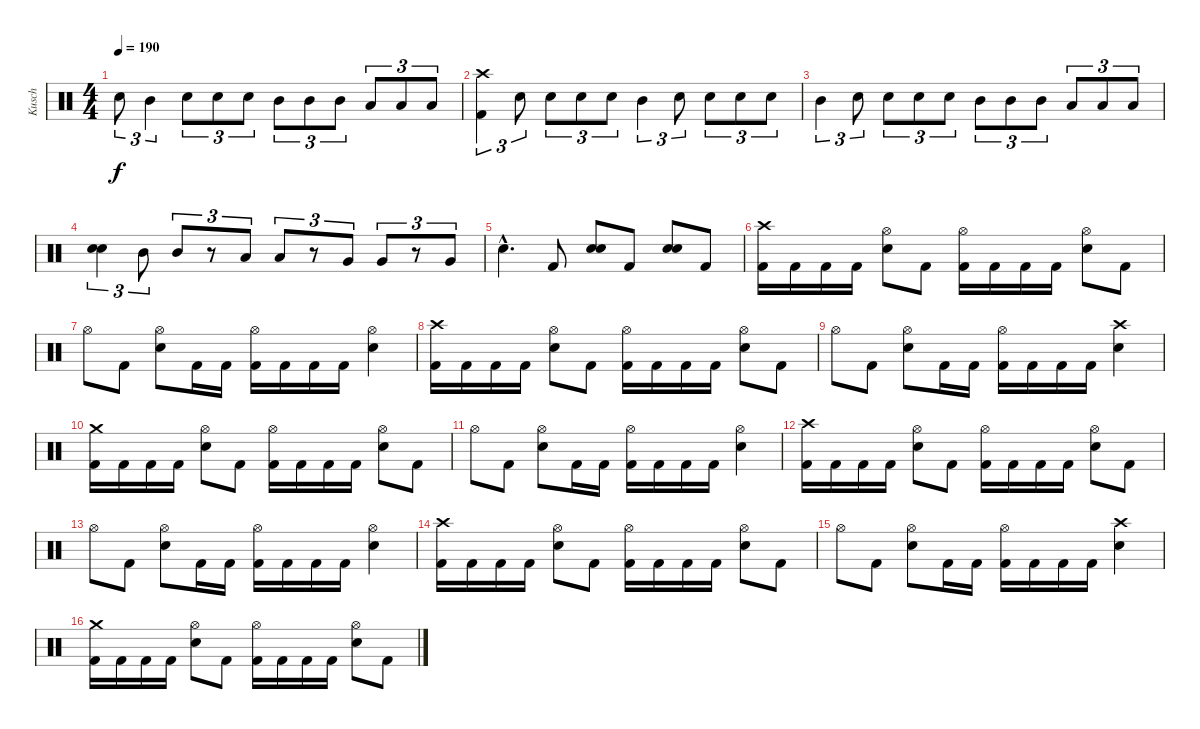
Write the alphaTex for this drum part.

\track ("Kusch" "Kusch") {instrument percussion}
\staff {score}
\articulation defaults
\ts (4 4)
\tempo 190
\clef neutral
\ks c "Electric Snare (hit)".8{tu (3 2) dy f} "Mid Tom (hit)".4{tu (3 2)} "Electric Snare (hit)".8{tu (3 2)} "Electric Snare (hit)".8{tu (3 2)} "Electric Snare (hit)".8{tu (3 2)} "Mid Tom (hit)".8{tu (3 2)} "Mid Tom (hit)".8{tu (3 2)} "Mid Tom (hit)".8{tu (3 2)} "Low Tom (hit)".8{tu (3 2)} "Low Tom (hit)".8{tu (3 2)} "Low Tom (hit)".8{tu (3 2)}
|
("Crash high (hit)" "Kick (hit) 2").4{tu (3 2)} "Electric Snare (hit)".8{tu (3 2)} "Electric Snare (hit)".8{tu (3 2)} "Electric Snare (hit)".8{tu (3 2)} "Electric Snare (hit)".8{tu (3 2)} "Mid Tom (hit)".4{tu (3 2)} "Electric Snare (hit)".8{tu (3 2)} "Electric Snare (hit)".8{tu (3 2)} "Electric Snare (hit)".8{tu (3 2)} "Electric Snare (hit)".8{tu (3 2)} |
"Mid Tom (hit)".4{tu (3 2)} "Electric Snare (hit)".8{tu (3 2)} "Electric Snare (hit)".8{tu (3 2)} "Electric Snare (hit)".8{tu (3 2)} "Electric Snare (hit)".8{tu (3 2)} "Mid Tom (hit)".8{tu (3 2)} "Mid Tom (hit)".8{tu (3 2)} "Mid Tom (hit)".8{tu (3 2)} "Low Tom (hit)".8{tu (3 2)} "Low Tom (hit)".8{tu (3 2)} "Low Tom (hit)".8{tu (3 2)} |
("Electric Snare (hit)" "Electric Snare (hit)").4{tu (3 2) bd 240} "Mid Tom (hit)".8{tu (3 2)} "Mid Tom (hit)".8{tu (3 2)} r.8{tu (3 2)} "Low Tom (hit)".8{tu (3 2)} "Low Tom (hit)".8{tu (3 2)} r.8{tu (3 2)} "Very Low Tom (hit)".8{tu (3 2)} "Very Low Tom (hit)".8{tu (3 2)} r.8{tu (3 2)} "Very Low Tom (hit)".8{tu (3 2)} |
"Electric Snare (hit)"{hac}.4{d} "Kick (hit) 2".8 ("Electric Snare (hit)" "Electric Snare (hit)").8{bd 240} "Kick (hit) 2".8 ("Electric Snare (hit)" "Electric Snare (hit)").8{bd 240} "Kick (hit) 2".8 |
("Crash high (hit)" "Kick (hit) 2").16 "Kick (hit) 2".16 "Kick (hit) 2".16 "Kick (hit) 2".16 ("Hi-Hat (open)" "Electric Snare (hit)").8 "Kick (hit) 2".8 ("Hi-Hat (open)" "Kick (hit) 2").16 "Kick (hit) 2".16 "Kick (hit) 2".16 "Kick (hit) 2".16 ("Hi-Hat (open)" "Electric Snare (hit)").8 "Kick (hit) 2".8 |
"Hi-Hat (open)".8 "Kick (hit) 2".8 ("Hi-Hat (open)" "Electric Snare (hit)").8 "Kick (hit) 2".16 "Kick (hit) 2".16 ("Hi-Hat (open)" "Kick (hit) 2").16 "Kick (hit) 2".16 "Kick (hit) 2".16 "Kick (hit) 2".16 ("Hi-Hat (open)" "Electric Snare (hit)").4 |
("Crash high (hit)" "Kick (hit) 2").16 "Kick (hit) 2".16 "Kick (hit) 2".16 "Kick (hit) 2".16 ("Hi-Hat (open)" "Electric Snare (hit)").8 "Kick (hit) 2".8 ("Hi-Hat (open)" "Kick (hit) 2").16 "Kick (hit) 2".16 "Kick (hit) 2".16 "Kick (hit) 2".16 ("Hi-Hat (open)" "Electric Snare (hit)").8 "Kick (hit) 2".8 |
"Hi-Hat (open)".8 "Kick (hit) 2".8 ("Hi-Hat (open)" "Electric Snare (hit)").8 "Kick (hit) 2".16 "Kick (hit) 2".16 ("Hi-Hat (open)" "Kick (hit) 2").16 "Kick (hit) 2".16 "Kick (hit) 2".16 "Kick (hit) 2".16 ("Crash high (hit)" "Electric Snare (hit)").4 |
("Crash medium (hit)" "Kick (hit) 2").16 "Kick (hit) 2".16 "Kick (hit) 2".16 "Kick (hit) 2".16 ("Hi-Hat (open)" "Electric Snare (hit)").8 "Kick (hit) 2".8 ("Hi-Hat (open)" "Kick (hit) 2").16 "Kick (hit) 2".16 "Kick (hit) 2".16 "Kick (hit) 2".16 ("Hi-Hat (open)" "Electric Snare (hit)").8 "Kick (hit) 2".8 |
"Hi-Hat (open)".8 "Kick (hit) 2".8 ("Hi-Hat (open)" "Electric Snare (hit)").8 "Kick (hit) 2".16 "Kick (hit) 2".16 ("Hi-Hat (open)" "Kick (hit) 2").16 "Kick (hit) 2".16 "Kick (hit) 2".16 "Kick (hit) 2".16 ("Hi-Hat (open)" "Electric Snare (hit)").4 |
("Crash high (hit)" "Kick (hit) 2").16 "Kick (hit) 2".16 "Kick (hit) 2".16 "Kick (hit) 2".16 ("Hi-Hat (open)" "Electric Snare (hit)").8 "Kick (hit) 2".8 ("Hi-Hat (open)" "Kick (hit) 2").16 "Kick (hit) 2".16 "Kick (hit) 2".16 "Kick (hit) 2".16 ("Hi-Hat (open)" "Electric Snare (hit)").8 "Kick (hit) 2".8 |
"Hi-Hat (open)".8 "Kick (hit) 2".8 ("Hi-Hat (open)" "Electric Snare (hit)").8 "Kick (hit) 2".16 "Kick (hit) 2".16 ("Hi-Hat (open)" "Kick (hit) 2").16 "Kick (hit) 2".16 "Kick (hit) 2".16 "Kick (hit) 2".16 ("Hi-Hat (open)" "Electric Snare (hit)").4 |
("Crash high (hit)" "Kick (hit) 2").16 "Kick (hit) 2".16 "Kick (hit) 2".16 "Kick (hit) 2".16 ("Hi-Hat (open)" "Electric Snare (hit)").8 "Kick (hit) 2".8 ("Hi-Hat (open)" "Kick (hit) 2").16 "Kick (hit) 2".16 "Kick (hit) 2".16 "Kick (hit) 2".16 ("Hi-Hat (open)" "Electric Snare (hit)").8 "Kick (hit) 2".8 |
"Hi-Hat (open)".8 "Kick (hit) 2".8 ("Hi-Hat (open)" "Electric Snare (hit)").8 "Kick (hit) 2".16 "Kick (hit) 2".16 ("Hi-Hat (open)" "Kick (hit) 2").16 "Kick (hit) 2".16 "Kick (hit) 2".16 "Kick (hit) 2".16 ("Crash high (hit)" "Electric Snare (hit)").4 |
("Crash medium (hit)" "Kick (hit) 2").16 "Kick (hit) 2".16 "Kick (hit) 2".16 "Kick (hit) 2".16 ("Hi-Hat (open)" "Electric Snare (hit)").8 "Kick (hit) 2".8 ("Hi-Hat (open)" "Kick (hit) 2").16 "Kick (hit) 2".16 "Kick (hit) 2".16 "Kick (hit) 2".16 ("Hi-Hat (open)" "Electric Snare (hit)").8 "Kick (hit) 2".8
